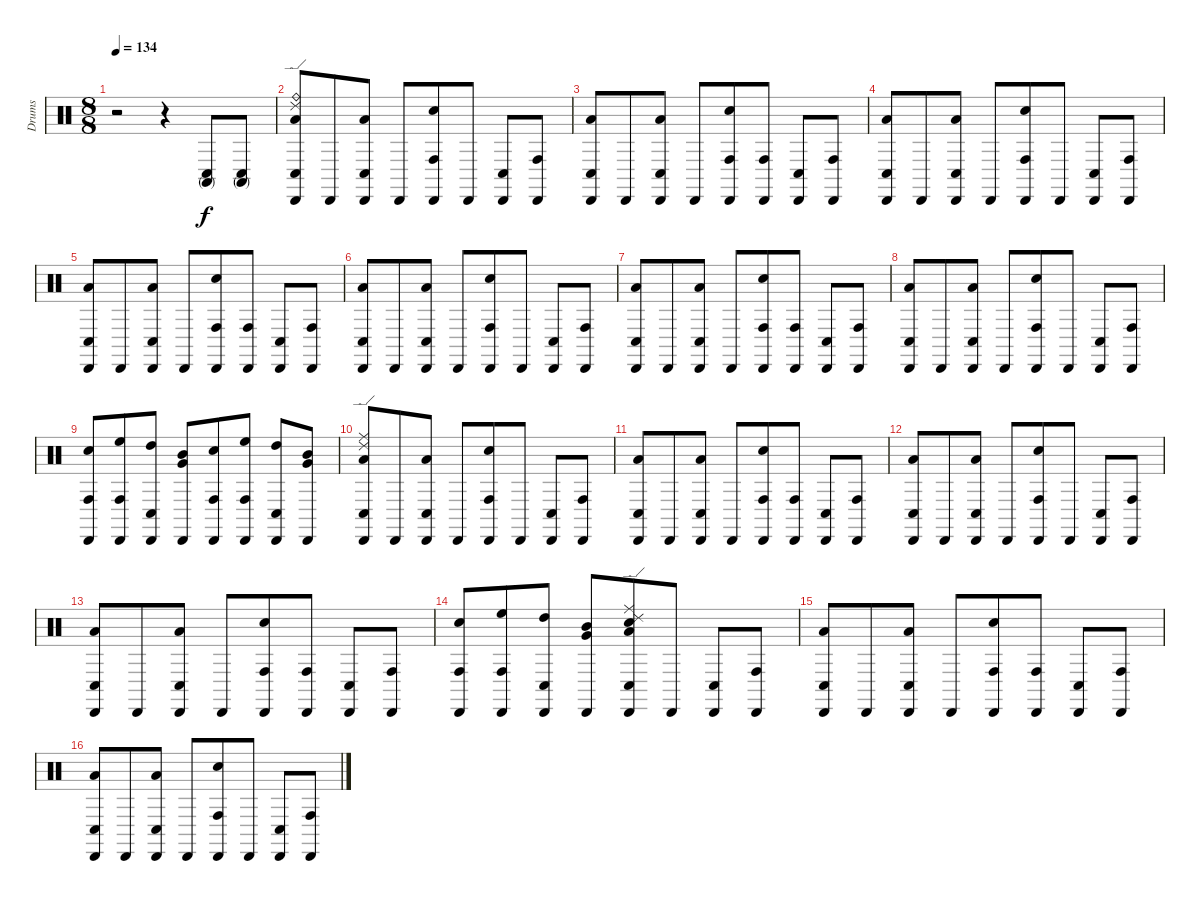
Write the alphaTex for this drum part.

\track ("Drums" "Drums") {instrument percussion}
\staff {score}
\articulation defaults
\ts (8 8)
\tempo 134
\clef neutral
\ks c
r.2{dy f} r.4 ("Conga high (mute)" "Conga low (hit)").8 ("Conga high (mute)" "Conga low (hit)").8 |
("Cabasa (hit)" "Ride (bell)" "Ride (edge) 2" "Low Tom (hit)" "Conga low (hit)").8 "Cabasa (hit)".8 ("Cabasa (hit)" "Low Tom (hit)" "Conga low (hit)").8 "Cabasa (hit)".8 ("Electric Snare (hit)" "Cabasa (hit)" "Conga high (hit)").8 "Cabasa (hit)".8 ("Cabasa (hit)" "Conga low (hit)").8 ("Cabasa (hit)" "Conga high (hit)").8 |
("Cabasa (hit)" "Low Tom (hit)" "Conga low (hit)").8 "Cabasa (hit)".8 ("Cabasa (hit)" "Low Tom (hit)" "Conga low (hit)").8 "Cabasa (hit)".8 ("Electric Snare (hit)" "Cabasa (hit)" "Conga high (hit)").8 ("Conga high (hit)" "Cabasa (hit)").8 ("Cabasa (hit)" "Conga low (hit)").8 ("Cabasa (hit)" "Conga high (hit)").8 |
("Cabasa (hit)" "Low Tom (hit)" "Conga low (hit)").8 "Cabasa (hit)".8 ("Cabasa (hit)" "Low Tom (hit)" "Conga low (hit)").8 "Cabasa (hit)".8 ("Electric Snare (hit)" "Cabasa (hit)" "Conga high (hit)").8 "Cabasa (hit)".8 ("Cabasa (hit)" "Conga low (hit)").8 ("Cabasa (hit)" "Conga high (hit)").8 |
("Cabasa (hit)" "Low Tom (hit)" "Conga low (hit)").8 "Cabasa (hit)".8 ("Cabasa (hit)" "Low Tom (hit)" "Conga low (hit)").8 "Cabasa (hit)".8 ("Electric Snare (hit)" "Cabasa (hit)" "Conga high (hit)").8 ("Conga high (hit)" "Cabasa (hit)").8 ("Cabasa (hit)" "Conga low (hit)").8 ("Cabasa (hit)" "Conga high (hit)").8 |
("Cabasa (hit)" "Low Tom (hit)" "Conga low (hit)").8 "Cabasa (hit)".8 ("Cabasa (hit)" "Low Tom (hit)" "Conga low (hit)").8 "Cabasa (hit)".8 ("Electric Snare (hit)" "Cabasa (hit)" "Conga high (hit)").8 "Cabasa (hit)".8 ("Cabasa (hit)" "Conga low (hit)").8 ("Cabasa (hit)" "Conga high (hit)").8 |
("Cabasa (hit)" "Low Tom (hit)" "Conga low (hit)").8 "Cabasa (hit)".8 ("Cabasa (hit)" "Low Tom (hit)" "Conga low (hit)").8 "Cabasa (hit)".8 ("Electric Snare (hit)" "Cabasa (hit)" "Conga high (hit)").8 ("Conga high (hit)" "Cabasa (hit)").8 ("Cabasa (hit)" "Conga low (hit)").8 ("Cabasa (hit)" "Conga high (hit)").8 |
("Cabasa (hit)" "Low Tom (hit)" "Conga low (hit)").8 "Cabasa (hit)".8 ("Cabasa (hit)" "Low Tom (hit)" "Conga low (hit)").8 "Cabasa (hit)".8 ("Electric Snare (hit)" "Cabasa (hit)" "Conga high (hit)").8 "Cabasa (hit)".8 ("Cabasa (hit)" "Conga low (hit)").8 ("Cabasa (hit)" "Conga high (hit)").8 |
("Electric Snare (hit)" "Cabasa (hit)" "Conga high (hit)").8 ("Cabasa (hit)" "High Floor Tom (hit)" "Conga high (hit)").8 ("Cabasa (hit)" "High Tom (hit)" "Conga low (hit)").8 ("Very Low Tom (hit)" "Cabasa (hit)" "Mid Tom (hit)").8 ("Electric Snare (hit)" "Cabasa (hit)" "Conga high (hit)").8 ("Cabasa (hit)" "High Floor Tom (hit)" "Conga high (hit)").8 ("Cabasa (hit)" "High Tom (hit)" "Conga low (hit)").8 ("Very Low Tom (hit)" "Cabasa (hit)" "Mid Tom (hit)").8 |
("Cabasa (hit)" "Ride (edge) 2" "Ride (middle)" "Low Tom (hit)" "Conga low (hit)").8 "Cabasa (hit)".8 ("Cabasa (hit)" "Low Tom (hit)" "Conga low (hit)").8 "Cabasa (hit)".8 ("Electric Snare (hit)" "Cabasa (hit)" "Conga high (hit)").8 "Cabasa (hit)".8 ("Cabasa (hit)" "Conga low (hit)").8 ("Cabasa (hit)" "Conga high (hit)").8 |
("Cabasa (hit)" "Low Tom (hit)" "Conga low (hit)").8 "Cabasa (hit)".8 ("Cabasa (hit)" "Low Tom (hit)" "Conga low (hit)").8 "Cabasa (hit)".8 ("Electric Snare (hit)" "Cabasa (hit)" "Conga high (hit)").8 ("Conga high (hit)" "Cabasa (hit)").8 ("Cabasa (hit)" "Conga low (hit)").8 ("Cabasa (hit)" "Conga high (hit)").8 |
("Cabasa (hit)" "Low Tom (hit)" "Conga low (hit)").8 "Cabasa (hit)".8 ("Cabasa (hit)" "Low Tom (hit)" "Conga low (hit)").8 "Cabasa (hit)".8 ("Electric Snare (hit)" "Cabasa (hit)" "Conga high (hit)").8 "Cabasa (hit)".8 ("Cabasa (hit)" "Conga low (hit)").8 ("Cabasa (hit)" "Conga high (hit)").8 |
("Cabasa (hit)" "Low Tom (hit)" "Conga low (hit)").8 "Cabasa (hit)".8 ("Cabasa (hit)" "Low Tom (hit)" "Conga low (hit)").8 "Cabasa (hit)".8 ("Electric Snare (hit)" "Cabasa (hit)" "Conga high (hit)").8 ("Conga high (hit)" "Cabasa (hit)").8 ("Cabasa (hit)" "Conga low (hit)").8 ("Cabasa (hit)" "Conga high (hit)").8 |
("Electric Snare (hit)" "Cabasa (hit)" "Conga high (hit)").8 ("Cabasa (hit)" "High Floor Tom (hit)" "Conga high (hit)").8 ("Cabasa (hit)" "High Tom (hit)" "Conga low (hit)").8 ("Very Low Tom (hit)" "Cabasa (hit)" "Mid Tom (hit)").8 ("Electric Snare (hit)" "Cabasa (hit)" "Ride (edge) 2" "Ride (middle)" "Low Tom (hit)" "Conga low (hit)").8 "Cabasa (hit)".8 ("Cabasa (hit)" "Conga low (hit)").8 ("Cabasa (hit)" "Conga high (hit)").8 |
("Cabasa (hit)" "Low Tom (hit)" "Conga low (hit)").8 "Cabasa (hit)".8 ("Cabasa (hit)" "Low Tom (hit)" "Conga low (hit)").8 "Cabasa (hit)".8 ("Electric Snare (hit)" "Cabasa (hit)" "Conga high (hit)").8 ("Conga high (hit)" "Cabasa (hit)").8 ("Cabasa (hit)" "Conga low (hit)").8 ("Cabasa (hit)" "Conga high (hit)").8 |
("Cabasa (hit)" "Low Tom (hit)" "Conga low (hit)").8 "Cabasa (hit)".8 ("Cabasa (hit)" "Low Tom (hit)" "Conga low (hit)").8 "Cabasa (hit)".8 ("Electric Snare (hit)" "Cabasa (hit)" "Conga high (hit)").8 "Cabasa (hit)".8 ("Cabasa (hit)" "Conga low (hit)").8 ("Cabasa (hit)" "Conga high (hit)").8
